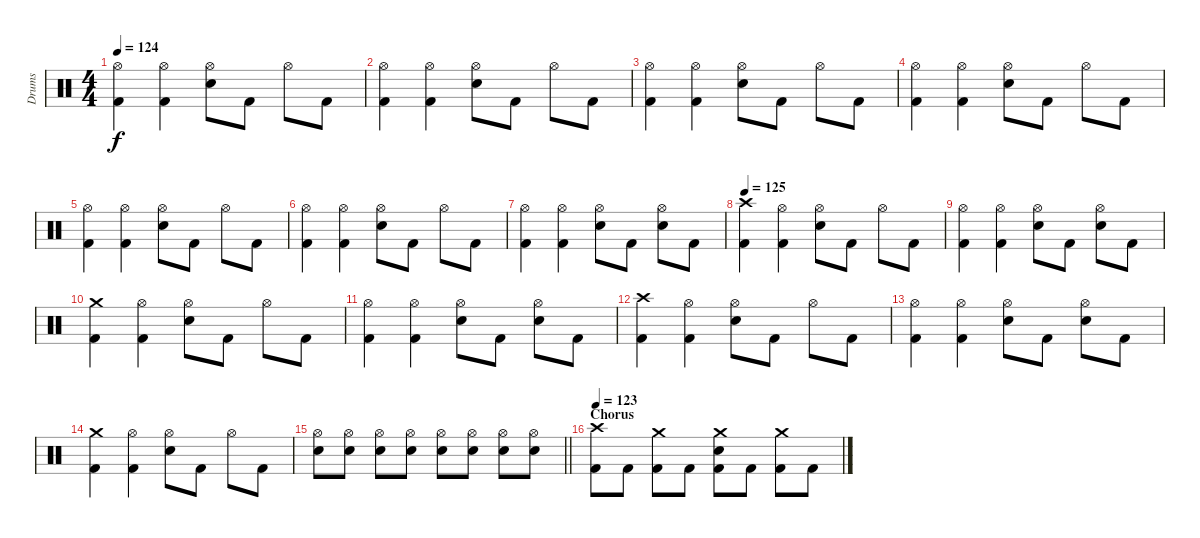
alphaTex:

\track ("Drums" "Drums") {instrument percussion}
\staff {score}
\articulation defaults
\ts (4 4)
\tempo 124
\clef neutral
\ks c
("Hi-Hat (open)" "Kick (hit) 2").4{dy f} ("Hi-Hat (open)" "Kick (hit) 2").4 ("Hi-Hat (open)" "Snare (hit) 2").8 "Kick (hit) 2".8 "Hi-Hat (open)".8 "Kick (hit) 2".8 |
("Hi-Hat (open)" "Kick (hit) 2").4 ("Hi-Hat (open)" "Kick (hit) 2").4 ("Hi-Hat (open)" "Snare (hit) 2").8 "Kick (hit) 2".8 "Hi-Hat (open)".8 "Kick (hit) 2".8 |
("Hi-Hat (open)" "Kick (hit) 2").4 ("Hi-Hat (open)" "Kick (hit) 2").4 ("Hi-Hat (open)" "Snare (hit) 2").8 "Kick (hit) 2".8 "Hi-Hat (open)".8 "Kick (hit) 2".8 |
("Hi-Hat (open)" "Kick (hit) 2").4 ("Hi-Hat (open)" "Kick (hit) 2").4 ("Hi-Hat (open)" "Snare (hit) 2").8 "Kick (hit) 2".8 "Hi-Hat (open)".8 "Kick (hit) 2".8 |
("Hi-Hat (open)" "Kick (hit) 2").4 ("Hi-Hat (open)" "Kick (hit) 2").4 ("Hi-Hat (open)" "Snare (hit) 2").8 "Kick (hit) 2".8 "Hi-Hat (open)".8 "Kick (hit) 2".8 |
("Hi-Hat (open)" "Kick (hit) 2").4 ("Hi-Hat (open)" "Kick (hit) 2").4 ("Hi-Hat (open)" "Snare (hit) 2").8 "Kick (hit) 2".8 "Hi-Hat (open)".8 "Kick (hit) 2".8 |
("Hi-Hat (open)" "Kick (hit) 2").4 ("Hi-Hat (open)" "Kick (hit) 2").4 ("Hi-Hat (open)" "Snare (hit) 2").8 "Kick (hit) 2".8 ("Hi-Hat (open)" "Snare (hit) 2").8 "Kick (hit) 2".8 |
\tempo 125
("Crash high (hit)" "Kick (hit) 2").4 ("Hi-Hat (open)" "Kick (hit) 2").4 ("Hi-Hat (open)" "Snare (hit) 2").8 "Kick (hit) 2".8 "Hi-Hat (open)".8 "Kick (hit) 2".8 |
("Hi-Hat (open)" "Kick (hit) 2").4 ("Hi-Hat (open)" "Kick (hit) 2").4 ("Hi-Hat (open)" "Snare (hit) 2").8 "Kick (hit) 2".8 ("Hi-Hat (open)" "Snare (hit) 2").8 "Kick (hit) 2".8 |
("Crash medium (hit)" "Kick (hit) 2").4 ("Hi-Hat (open)" "Kick (hit) 2").4 ("Hi-Hat (open)" "Snare (hit) 2").8 "Kick (hit) 2".8 "Hi-Hat (open)".8 "Kick (hit) 2".8 |
("Hi-Hat (open)" "Kick (hit) 2").4 ("Hi-Hat (open)" "Kick (hit) 2").4 ("Hi-Hat (open)" "Snare (hit) 2").8 "Kick (hit) 2".8 ("Hi-Hat (open)" "Snare (hit) 2").8 "Kick (hit) 2".8 |
("Crash high (hit)" "Kick (hit) 2").4 ("Hi-Hat (open)" "Kick (hit) 2").4 ("Hi-Hat (open)" "Snare (hit) 2").8 "Kick (hit) 2".8 "Hi-Hat (open)".8 "Kick (hit) 2".8 |
("Hi-Hat (open)" "Kick (hit) 2").4 ("Hi-Hat (open)" "Kick (hit) 2").4 ("Hi-Hat (open)" "Snare (hit) 2").8 "Kick (hit) 2".8 ("Hi-Hat (open)" "Snare (hit) 2").8 "Kick (hit) 2".8 |
("Crash medium (hit)" "Kick (hit) 2").4 ("Hi-Hat (open)" "Kick (hit) 2").4 ("Hi-Hat (open)" "Snare (hit) 2").8 "Kick (hit) 2".8 "Hi-Hat (open)".8 "Kick (hit) 2".8 |
\barLineRight lightlight
("Hi-Hat (open)" "Snare (hit) 2").8 ("Hi-Hat (open)" "Snare (hit) 2").8 ("Hi-Hat (open)" "Snare (hit) 2").8 ("Hi-Hat (open)" "Snare (hit) 2").8 ("Hi-Hat (open)" "Snare (hit) 2").8 ("Hi-Hat (open)" "Snare (hit) 2").8 ("Hi-Hat (open)" "Snare (hit) 2").8 ("Hi-Hat (open)" "Snare (hit) 2").8 |
\section ("" "Chorus")
\tempo 123
("Crash high (hit)" "Kick (hit) 2").8 "Kick (hit) 2".8 ("Crash medium (hit)" "Kick (hit) 2").8 "Kick (hit) 2".8 ("Crash medium (hit)" "Snare (hit) 2" "Kick (hit) 2").8 "Kick (hit) 2".8 ("Crash medium (hit)" "Kick (hit) 2").8 "Kick (hit) 2".8
